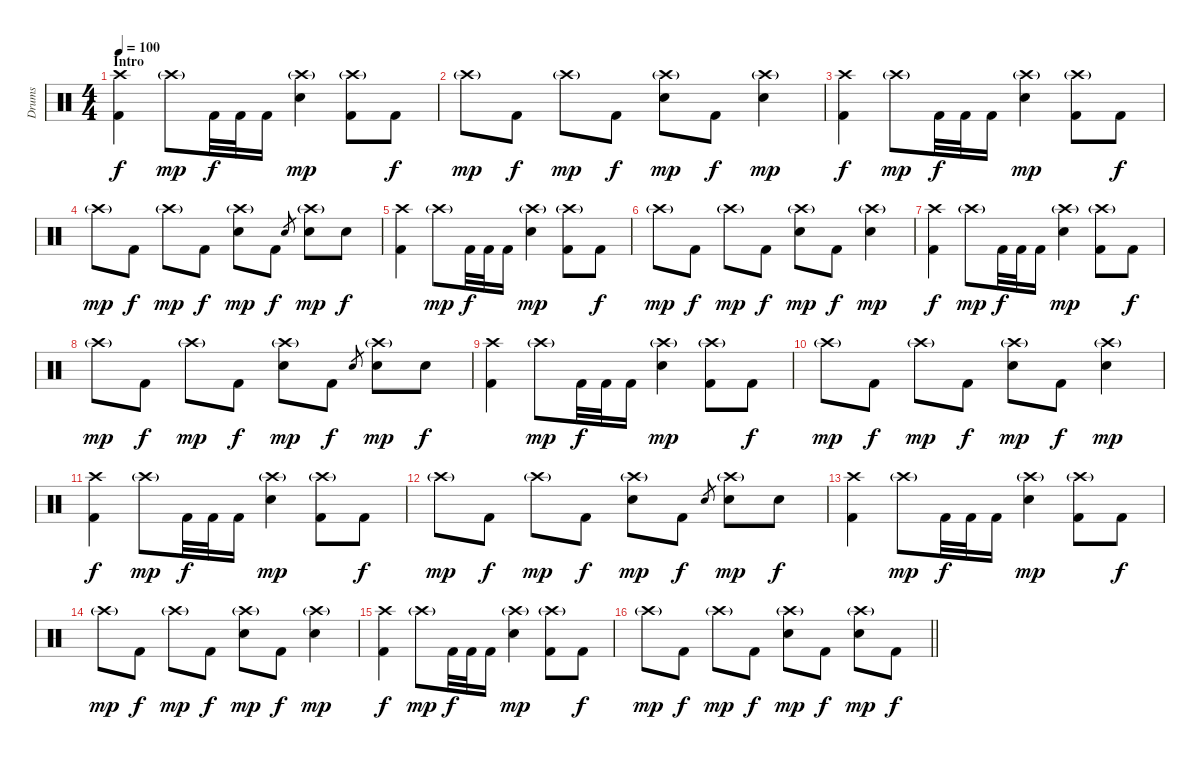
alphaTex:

\track ("Drums" "Drums") {instrument percussion}
\staff {score}
\articulation defaults
\ts (4 4)
\section ("" "Intro")
\tempo 100
\clef neutral
\ks c
("Crash high (hit)" "Kick (hit) 2").4{dy f} "Crash high (hit)"{g}.8{dy mp} "Kick (hit) 2".32{dy f} "Kick (hit) 2".32 "Kick (hit) 2".16 ("Crash high (hit)"{g} "Snare (hit) 2").4{dy mp} ("Crash high (hit)"{g} "Kick (hit) 2").8 "Kick (hit) 2".8{dy f} |
"Crash high (hit)"{g}.8{dy mp} "Kick (hit) 2".8{dy f} "Crash high (hit)"{g}.8{dy mp} "Kick (hit) 2".8{dy f} ("Crash high (hit)"{g} "Snare (hit) 2").8{dy mp} "Kick (hit) 2".8{dy f} ("Crash high (hit)"{g} "Snare (hit) 2").4{dy mp} |
("Crash high (hit)" "Kick (hit) 2").4{dy f} "Crash high (hit)"{g}.8{dy mp} "Kick (hit) 2".32{dy f} "Kick (hit) 2".32 "Kick (hit) 2".16 ("Crash high (hit)"{g} "Snare (hit) 2").4{dy mp} ("Crash high (hit)"{g} "Kick (hit) 2").8 "Kick (hit) 2".8{dy f} |
"Crash high (hit)"{g}.8{dy mp} "Kick (hit) 2".8{dy f} "Crash high (hit)"{g}.8{dy mp} "Kick (hit) 2".8{dy f} ("Crash high (hit)"{g} "Snare (hit) 2").8{dy mp} "Kick (hit) 2".8{dy f} "Snare (hit) 2".8{gr} ("Crash high (hit)"{g} "Snare (hit) 2").8{dy mp} "Snare (hit) 2".8{dy f} |
("Crash high (hit)" "Kick (hit) 2").4 "Crash high (hit)"{g}.8{dy mp} "Kick (hit) 2".32{dy f} "Kick (hit) 2".32 "Kick (hit) 2".16 ("Crash high (hit)"{g} "Snare (hit) 2").4{dy mp} ("Crash high (hit)"{g} "Kick (hit) 2").8 "Kick (hit) 2".8{dy f} |
"Crash high (hit)"{g}.8{dy mp} "Kick (hit) 2".8{dy f} "Crash high (hit)"{g}.8{dy mp} "Kick (hit) 2".8{dy f} ("Crash high (hit)"{g} "Snare (hit) 2").8{dy mp} "Kick (hit) 2".8{dy f} ("Crash high (hit)"{g} "Snare (hit) 2").4{dy mp} |
("Crash high (hit)" "Kick (hit) 2").4{dy f} "Crash high (hit)"{g}.8{dy mp} "Kick (hit) 2".32{dy f} "Kick (hit) 2".32 "Kick (hit) 2".16 ("Crash high (hit)"{g} "Snare (hit) 2").4{dy mp} ("Crash high (hit)"{g} "Kick (hit) 2").8 "Kick (hit) 2".8{dy f} |
"Crash high (hit)"{g}.8{dy mp} "Kick (hit) 2".8{dy f} "Crash high (hit)"{g}.8{dy mp} "Kick (hit) 2".8{dy f} ("Crash high (hit)"{g} "Snare (hit) 2").8{dy mp} "Kick (hit) 2".8{dy f} "Snare (hit) 2".8{gr} ("Crash high (hit)"{g} "Snare (hit) 2").8{dy mp} "Snare (hit) 2".8{dy f} |
("Crash high (hit)" "Kick (hit) 2").4 "Crash high (hit)"{g}.8{dy mp} "Kick (hit) 2".32{dy f} "Kick (hit) 2".32 "Kick (hit) 2".16 ("Crash high (hit)"{g} "Snare (hit) 2").4{dy mp} ("Crash high (hit)"{g} "Kick (hit) 2").8 "Kick (hit) 2".8{dy f} |
"Crash high (hit)"{g}.8{dy mp} "Kick (hit) 2".8{dy f} "Crash high (hit)"{g}.8{dy mp} "Kick (hit) 2".8{dy f} ("Crash high (hit)"{g} "Snare (hit) 2").8{dy mp} "Kick (hit) 2".8{dy f} ("Crash high (hit)"{g} "Snare (hit) 2").4{dy mp} |
("Crash high (hit)" "Kick (hit) 2").4{dy f} "Crash high (hit)"{g}.8{dy mp} "Kick (hit) 2".32{dy f} "Kick (hit) 2".32 "Kick (hit) 2".16 ("Crash high (hit)"{g} "Snare (hit) 2").4{dy mp} ("Crash high (hit)"{g} "Kick (hit) 2").8 "Kick (hit) 2".8{dy f} |
"Crash high (hit)"{g}.8{dy mp} "Kick (hit) 2".8{dy f} "Crash high (hit)"{g}.8{dy mp} "Kick (hit) 2".8{dy f} ("Crash high (hit)"{g} "Snare (hit) 2").8{dy mp} "Kick (hit) 2".8{dy f} "Snare (hit) 2".8{gr} ("Crash high (hit)"{g} "Snare (hit) 2").8{dy mp} "Snare (hit) 2".8{dy f} |
("Crash high (hit)" "Kick (hit) 2").4 "Crash high (hit)"{g}.8{dy mp} "Kick (hit) 2".32{dy f} "Kick (hit) 2".32 "Kick (hit) 2".16 ("Crash high (hit)"{g} "Snare (hit) 2").4{dy mp} ("Crash high (hit)"{g} "Kick (hit) 2").8 "Kick (hit) 2".8{dy f} |
"Crash high (hit)"{g}.8{dy mp} "Kick (hit) 2".8{dy f} "Crash high (hit)"{g}.8{dy mp} "Kick (hit) 2".8{dy f} ("Crash high (hit)"{g} "Snare (hit) 2").8{dy mp} "Kick (hit) 2".8{dy f} ("Crash high (hit)"{g} "Snare (hit) 2").4{dy mp} |
("Crash high (hit)" "Kick (hit) 2").4{dy f} "Crash high (hit)"{g}.8{dy mp} "Kick (hit) 2".32{dy f} "Kick (hit) 2".32 "Kick (hit) 2".16 ("Crash high (hit)"{g} "Snare (hit) 2").4{dy mp} ("Crash high (hit)"{g} "Kick (hit) 2").8 "Kick (hit) 2".8{dy f} |
\barLineRight lightlight "Crash high (hit)"{g}.8{dy mp} "Kick (hit) 2".8{dy f} "Crash high (hit)"{g}.8{dy mp} "Kick (hit) 2".8{dy f}
("Crash high (hit)"{g} "Snare (hit) 2").8{dy mp} "Kick (hit) 2".8{dy f} ("Crash high (hit)"{g} "Snare (hit) 2").8{dy mp} "Kick (hit) 2".8{dy f}
